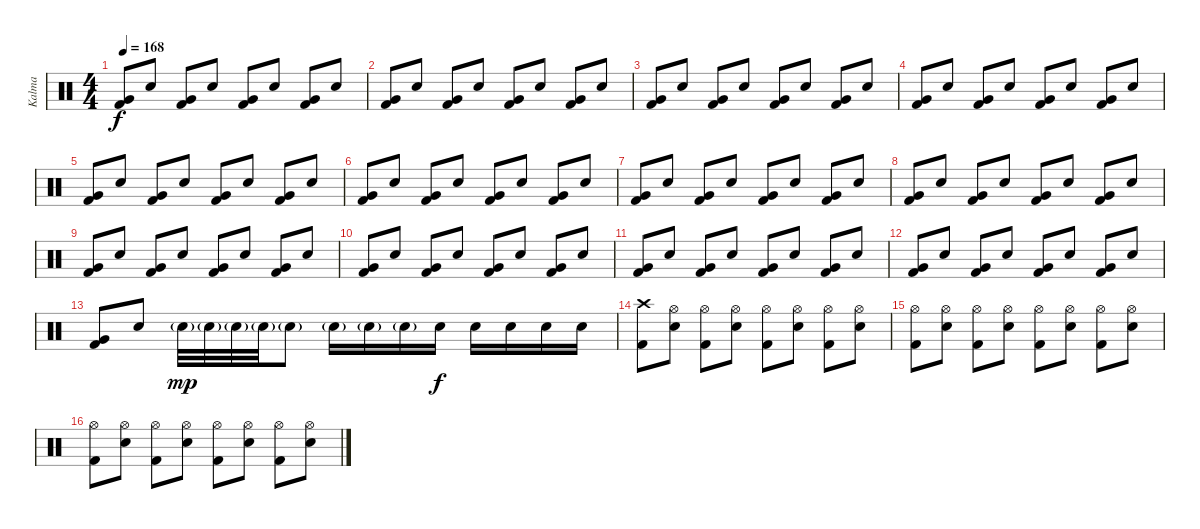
\track ("Kalma" "Kalma") {instrument percussion}
\staff {score}
\articulation defaults
\ts (4 4)
\tempo 168
\clef neutral
\ks c
("Very Low Tom (hit)" "Kick (hit) 2").8{dy f} "Snare (hit) 2".8 ("Very Low Tom (hit)" "Kick (hit) 2").8 "Snare (hit) 2".8 ("Very Low Tom (hit)" "Kick (hit) 2").8 "Snare (hit) 2".8 ("Very Low Tom (hit)" "Kick (hit) 2").8 "Snare (hit) 2".8 |
("Very Low Tom (hit)" "Kick (hit) 2").8 "Snare (hit) 2".8 ("Very Low Tom (hit)" "Kick (hit) 2").8 "Snare (hit) 2".8 ("Very Low Tom (hit)" "Kick (hit) 2").8 "Snare (hit) 2".8 ("Very Low Tom (hit)" "Kick (hit) 2").8 "Snare (hit) 2".8 |
("Very Low Tom (hit)" "Kick (hit) 2").8 "Snare (hit) 2".8 ("Very Low Tom (hit)" "Kick (hit) 2").8 "Snare (hit) 2".8 ("Very Low Tom (hit)" "Kick (hit) 2").8 "Snare (hit) 2".8 ("Very Low Tom (hit)" "Kick (hit) 2").8 "Snare (hit) 2".8 |
("Very Low Tom (hit)" "Kick (hit) 2").8 "Snare (hit) 2".8 ("Very Low Tom (hit)" "Kick (hit) 2").8 "Snare (hit) 2".8 ("Very Low Tom (hit)" "Kick (hit) 2").8 "Snare (hit) 2".8 ("Very Low Tom (hit)" "Kick (hit) 2").8 "Snare (hit) 2".8 |
("Very Low Tom (hit)" "Kick (hit) 2").8 "Snare (hit) 2".8 ("Very Low Tom (hit)" "Kick (hit) 2").8 "Snare (hit) 2".8 ("Very Low Tom (hit)" "Kick (hit) 2").8 "Snare (hit) 2".8 ("Very Low Tom (hit)" "Kick (hit) 2").8 "Snare (hit) 2".8 |
("Very Low Tom (hit)" "Kick (hit) 2").8 "Snare (hit) 2".8 ("Very Low Tom (hit)" "Kick (hit) 2").8 "Snare (hit) 2".8 ("Very Low Tom (hit)" "Kick (hit) 2").8 "Snare (hit) 2".8 ("Very Low Tom (hit)" "Kick (hit) 2").8 "Snare (hit) 2".8 |
("Very Low Tom (hit)" "Kick (hit) 2").8 "Snare (hit) 2".8 ("Very Low Tom (hit)" "Kick (hit) 2").8 "Snare (hit) 2".8 ("Very Low Tom (hit)" "Kick (hit) 2").8 "Snare (hit) 2".8 ("Very Low Tom (hit)" "Kick (hit) 2").8 "Snare (hit) 2".8 |
("Very Low Tom (hit)" "Kick (hit) 2").8 "Snare (hit) 2".8 ("Very Low Tom (hit)" "Kick (hit) 2").8 "Snare (hit) 2".8 ("Very Low Tom (hit)" "Kick (hit) 2").8 "Snare (hit) 2".8 ("Very Low Tom (hit)" "Kick (hit) 2").8 "Snare (hit) 2".8 |
("Very Low Tom (hit)" "Kick (hit) 2").8 "Snare (hit) 2".8 ("Very Low Tom (hit)" "Kick (hit) 2").8 "Snare (hit) 2".8 ("Very Low Tom (hit)" "Kick (hit) 2").8 "Snare (hit) 2".8 ("Very Low Tom (hit)" "Kick (hit) 2").8 "Snare (hit) 2".8 |
("Very Low Tom (hit)" "Kick (hit) 2").8 "Snare (hit) 2".8 ("Very Low Tom (hit)" "Kick (hit) 2").8 "Snare (hit) 2".8 ("Very Low Tom (hit)" "Kick (hit) 2").8 "Snare (hit) 2".8 ("Very Low Tom (hit)" "Kick (hit) 2").8 "Snare (hit) 2".8 |
("Very Low Tom (hit)" "Kick (hit) 2").8 "Snare (hit) 2".8 ("Very Low Tom (hit)" "Kick (hit) 2").8 "Snare (hit) 2".8 ("Very Low Tom (hit)" "Kick (hit) 2").8 "Snare (hit) 2".8 ("Very Low Tom (hit)" "Kick (hit) 2").8 "Snare (hit) 2".8 |
("Very Low Tom (hit)" "Kick (hit) 2").8 "Snare (hit) 2".8 ("Very Low Tom (hit)" "Kick (hit) 2").8 "Snare (hit) 2".8 ("Very Low Tom (hit)" "Kick (hit) 2").8 "Snare (hit) 2".8 ("Very Low Tom (hit)" "Kick (hit) 2").8 "Snare (hit) 2".8 |
("Very Low Tom (hit)" "Kick (hit) 2").8 "Snare (hit) 2".8 "Snare (hit) 2"{g}.32{dy mp} "Snare (hit) 2"{g}.32 "Snare (hit) 2"{g}.32 "Snare (hit) 2"{g}.32 "Snare (hit) 2"{g}.8 "Snare (hit) 2"{g}.16 "Snare (hit) 2"{g}.16 "Snare (hit) 2"{g}.16 "Snare (hit) 2".16{dy f} "Snare (hit) 2".16 "Snare (hit) 2".16 "Snare (hit) 2".16 "Snare (hit) 2".16 |
("Crash high (hit)" "Kick (hit) 2").8 ("Hi-Hat (open)" "Snare (hit) 2").8 ("Hi-Hat (open)" "Kick (hit) 2").8 ("Hi-Hat (open)" "Snare (hit) 2").8 ("Hi-Hat (open)" "Kick (hit) 2").8 ("Hi-Hat (open)" "Snare (hit) 2").8 ("Hi-Hat (open)" "Kick (hit) 2").8 ("Hi-Hat (open)" "Snare (hit) 2").8 |
("Hi-Hat (open)" "Kick (hit) 2").8 ("Hi-Hat (open)" "Snare (hit) 2").8 ("Hi-Hat (open)" "Kick (hit) 2").8 ("Hi-Hat (open)" "Snare (hit) 2").8 ("Hi-Hat (open)" "Kick (hit) 2").8 ("Hi-Hat (open)" "Snare (hit) 2").8 ("Hi-Hat (open)" "Kick (hit) 2").8 ("Hi-Hat (open)" "Snare (hit) 2").8 |
("Hi-Hat (open)" "Kick (hit) 2").8 ("Hi-Hat (open)" "Snare (hit) 2").8 ("Hi-Hat (open)" "Kick (hit) 2").8 ("Hi-Hat (open)" "Snare (hit) 2").8 ("Hi-Hat (open)" "Kick (hit) 2").8 ("Hi-Hat (open)" "Snare (hit) 2").8 ("Hi-Hat (open)" "Kick (hit) 2").8 ("Hi-Hat (open)" "Snare (hit) 2").8
